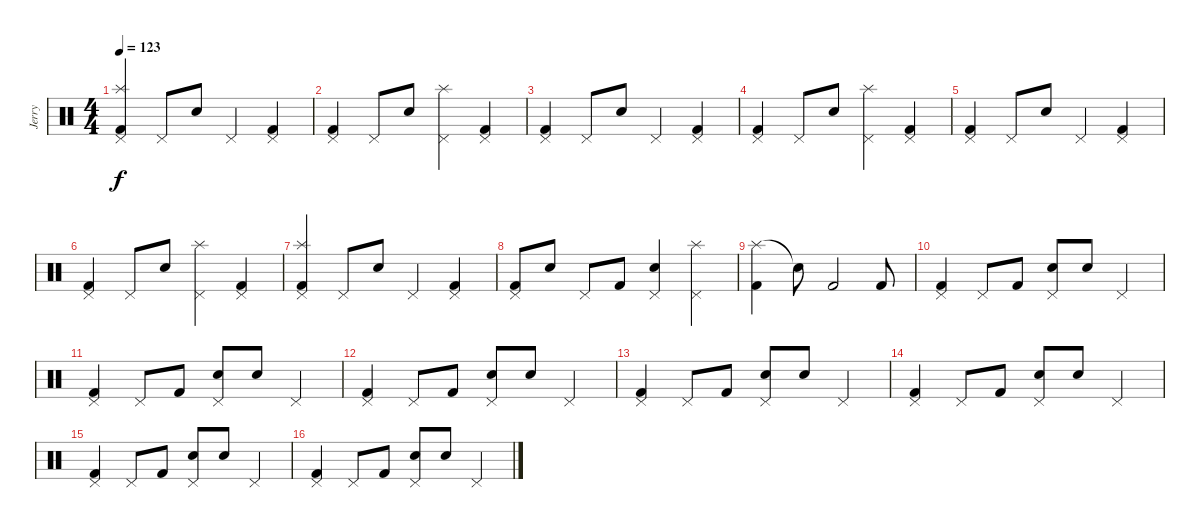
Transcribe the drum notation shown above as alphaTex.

\track ("Jerry" "Jerry") {instrument percussion}
\staff {score}
\articulation defaults
\ts (4 4)
\tempo 123
\clef neutral
\ks c
("Pedal Hi-Hat (hit)" "Splash (hit)" "Kick (hit) 2").4{dy f} "Pedal Hi-Hat (hit)".8 "Snare (hit) 2".8 "Pedal Hi-Hat (hit)".4 ("Pedal Hi-Hat (hit)" "Kick (hit) 2").4 |
("Pedal Hi-Hat (hit)" "Kick (hit) 2").4 "Pedal Hi-Hat (hit)".8 "Snare (hit) 2".8 ("Pedal Hi-Hat (hit)" "Splash (hit)").4 ("Pedal Hi-Hat (hit)" "Kick (hit) 2").4 |
("Pedal Hi-Hat (hit)" "Kick (hit) 2").4 "Pedal Hi-Hat (hit)".8 "Snare (hit) 2".8 "Pedal Hi-Hat (hit)".4 ("Pedal Hi-Hat (hit)" "Kick (hit) 2").4 |
("Pedal Hi-Hat (hit)" "Kick (hit) 2").4 "Pedal Hi-Hat (hit)".8 "Snare (hit) 2".8 ("Pedal Hi-Hat (hit)" "Splash (hit)").4 ("Pedal Hi-Hat (hit)" "Kick (hit) 2").4 |
("Pedal Hi-Hat (hit)" "Kick (hit) 2").4 "Pedal Hi-Hat (hit)".8 "Snare (hit) 2".8 "Pedal Hi-Hat (hit)".4 ("Pedal Hi-Hat (hit)" "Kick (hit) 2").4 |
("Pedal Hi-Hat (hit)" "Kick (hit) 2").4 "Pedal Hi-Hat (hit)".8 "Snare (hit) 2".8 ("Pedal Hi-Hat (hit)" "Splash (hit)").4 ("Pedal Hi-Hat (hit)" "Kick (hit) 2").4 |
("Pedal Hi-Hat (hit)" "Splash (hit)" "Kick (hit) 2").4 "Pedal Hi-Hat (hit)".8 "Snare (hit) 2".8 "Pedal Hi-Hat (hit)".4 ("Pedal Hi-Hat (hit)" "Kick (hit) 2").4 |
("Pedal Hi-Hat (hit)" "Kick (hit) 2").8 "Snare (hit) 2".8 "Pedal Hi-Hat (hit)".8 "Kick (hit) 2".8 ("Pedal Hi-Hat (hit)" "Snare (hit) 2").4 ("Pedal Hi-Hat (hit)" "Splash (hit)").4 |
("Splash (hit)" "Kick (hit) 2").4 "Snare (hit)"{t}.8 "Kick (hit) 2".2 "Kick (hit) 2".8 |
("Pedal Hi-Hat (hit)" "Kick (hit) 2").4 "Pedal Hi-Hat (hit)".8 "Kick (hit) 2".8 ("Pedal Hi-Hat (hit)" "Snare (hit) 2").8 "Snare (hit) 2".8 "Pedal Hi-Hat (hit)".4 |
("Pedal Hi-Hat (hit)" "Kick (hit) 2").4 "Pedal Hi-Hat (hit)".8 "Kick (hit) 2".8 ("Pedal Hi-Hat (hit)" "Snare (hit) 2").8 "Snare (hit) 2".8 "Pedal Hi-Hat (hit)".4 |
("Pedal Hi-Hat (hit)" "Kick (hit) 2").4 "Pedal Hi-Hat (hit)".8 "Kick (hit) 2".8 ("Pedal Hi-Hat (hit)" "Snare (hit) 2").8 "Snare (hit) 2".8 "Pedal Hi-Hat (hit)".4 |
("Pedal Hi-Hat (hit)" "Kick (hit) 2").4 "Pedal Hi-Hat (hit)".8 "Kick (hit) 2".8 ("Pedal Hi-Hat (hit)" "Snare (hit) 2").8 "Snare (hit) 2".8 "Pedal Hi-Hat (hit)".4 |
("Pedal Hi-Hat (hit)" "Kick (hit) 2").4 "Pedal Hi-Hat (hit)".8 "Kick (hit) 2".8 ("Pedal Hi-Hat (hit)" "Snare (hit) 2").8 "Snare (hit) 2".8 "Pedal Hi-Hat (hit)".4 |
("Pedal Hi-Hat (hit)" "Kick (hit) 2").4 "Pedal Hi-Hat (hit)".8 "Kick (hit) 2".8 ("Pedal Hi-Hat (hit)" "Snare (hit) 2").8 "Snare (hit) 2".8 "Pedal Hi-Hat (hit)".4 |
("Pedal Hi-Hat (hit)" "Kick (hit) 2").4 "Pedal Hi-Hat (hit)".8 "Kick (hit) 2".8 ("Pedal Hi-Hat (hit)" "Snare (hit) 2").8 "Snare (hit) 2".8 "Pedal Hi-Hat (hit)".4
